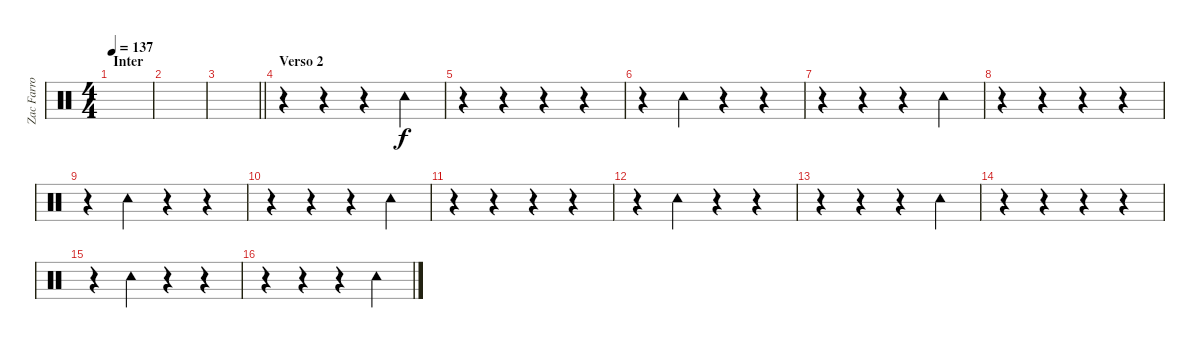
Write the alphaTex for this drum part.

\track ("Zac Farro" "Zac Farro") {instrument percussion}
\staff
\articulation defaults
\ts (4 4)
\section ("" "Inter")
\tempo 137
\clef neutral
\ks c
|
|
\barLineRight lightlight
|
\section ("" "Verso 2")
r.4 r.4 r.4 "Tambourine (hit)".4 |
r.4 r.4 r.4 r.4 |
r.4 "Tambourine (hit)".4 r.4 r.4 |
r.4 r.4 r.4 "Tambourine (hit)".4 |
r.4 r.4 r.4 r.4 |
r.4 "Tambourine (hit)".4 r.4 r.4 |
r.4 r.4 r.4 "Tambourine (hit)".4 |
r.4 r.4 r.4 r.4 |
r.4 "Tambourine (hit)".4 r.4 r.4 |
r.4 r.4 r.4 "Tambourine (hit)".4 |
r.4 r.4 r.4 r.4 |
r.4 "Tambourine (hit)".4 r.4 r.4 |
r.4 r.4 r.4 "Tambourine (hit)".4
